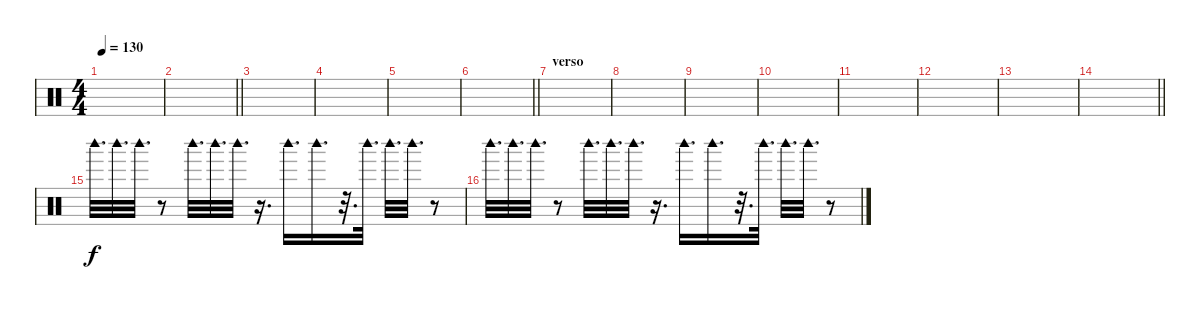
\track "" {instrument percussion}
\staff {score}
\articulation defaults
\ts (4 4)
\tempo 130
\clef neutral
\ks c
|
\barLineRight lightlight
|
|
|
|
\barLineRight lightlight
|
\section ("" "verso")
|
|
|
|
|
|
|
\barLineRight lightlight
|
\section ("" "")
"Woodblock high (hit)".32{d} "Woodblock high (hit)".32{d} "Woodblock high (hit)".32{d} r.8 "Woodblock high (hit)".32{d} "Woodblock high (hit)".32{d} "Woodblock high (hit)".32{d} r.16{d} "Woodblock high (hit)".16{d} "Woodblock high (hit)".16{d} r.32{d} "Woodblock high (hit)".32{d} "Woodblock high (hit)".32{d} "Woodblock high (hit)".32{d} r.8 |
"Woodblock high (hit)".32{d} "Woodblock high (hit)".32{d} "Woodblock high (hit)".32{d} r.8 "Woodblock high (hit)".32{d} "Woodblock high (hit)".32{d} "Woodblock high (hit)".32{d} r.16{d} "Woodblock high (hit)".16{d} "Woodblock high (hit)".16{d} r.32{d} "Woodblock high (hit)".32{d} "Woodblock high (hit)".32{d} "Woodblock high (hit)".32{d} r.8
